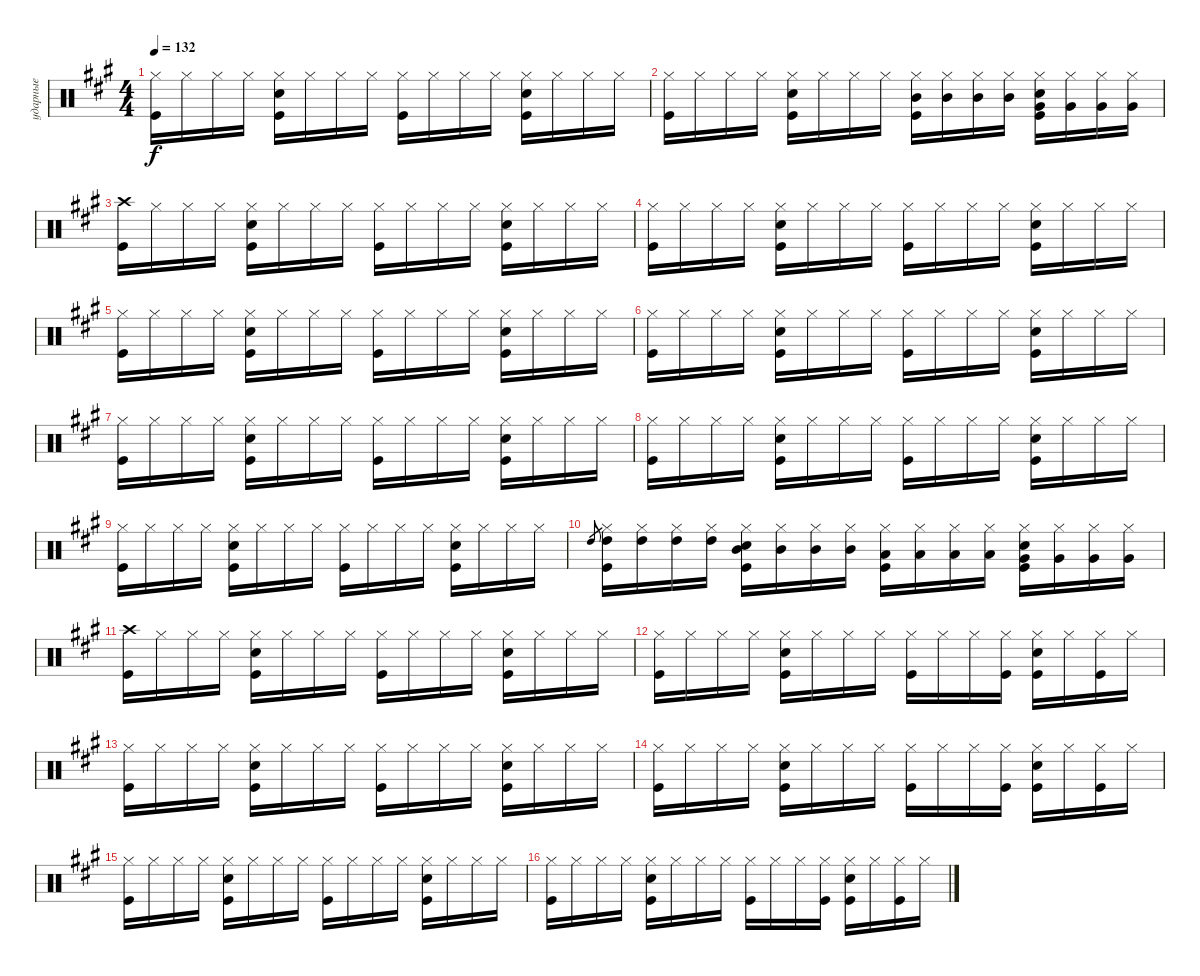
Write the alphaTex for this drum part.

\track ("ударные" "ударные") {instrument percussion}
\staff {score}
\articulation defaults
\ts (4 4)
\tempo 132
\clef neutral
\ks f#minor
("Hi-Hat (closed)" "Kick (hit)").16{dy f} "Hi-Hat (closed)".16 "Hi-Hat (closed)".16 "Hi-Hat (closed)".16 ("Hi-Hat (closed)" "Snare (hit) 2" "Kick (hit)").16 "Hi-Hat (closed)".16 "Hi-Hat (closed)".16 "Hi-Hat (closed)".16 ("Hi-Hat (closed)" "Kick (hit)").16 "Hi-Hat (closed)".16 "Hi-Hat (closed)".16 "Hi-Hat (closed)".16 ("Hi-Hat (closed)" "Snare (hit) 2" "Kick (hit)").16 "Hi-Hat (closed)".16 "Hi-Hat (closed)".16 "Hi-Hat (closed)".16 |
("Hi-Hat (closed)" "Kick (hit)").16 "Hi-Hat (closed)".16 "Hi-Hat (closed)".16 "Hi-Hat (closed)".16 ("Hi-Hat (closed)" "Snare (hit) 2" "Kick (hit)").16 "Hi-Hat (closed)".16 "Hi-Hat (closed)".16 "Hi-Hat (closed)".16 ("Mid Tom (hit)" "Hi-Hat (closed)" "Kick (hit)").16 ("Mid Tom (hit)" "Hi-Hat (closed)").16 ("Mid Tom (hit)" "Hi-Hat (closed)").16 ("Mid Tom (hit)" "Hi-Hat (closed)").16 ("Very Low Tom (hit)" "Hi-Hat (closed)" "Snare (hit) 2" "Kick (hit)").16 ("Very Low Tom (hit)" "Hi-Hat (closed)").16 ("Very Low Tom (hit)" "Hi-Hat (closed)").16 ("Very Low Tom (hit)" "Hi-Hat (closed)").16 |
("Kick (hit)" "Crash high (hit)").16 "Hi-Hat (closed)".16 "Hi-Hat (closed)".16 "Hi-Hat (closed)".16 ("Hi-Hat (closed)" "Snare (hit) 2" "Kick (hit)").16 "Hi-Hat (closed)".16 "Hi-Hat (closed)".16 "Hi-Hat (closed)".16 ("Hi-Hat (closed)" "Kick (hit)").16 "Hi-Hat (closed)".16 "Hi-Hat (closed)".16 "Hi-Hat (closed)".16 ("Hi-Hat (closed)" "Snare (hit) 2" "Kick (hit)").16 "Hi-Hat (closed)".16 "Hi-Hat (closed)".16 "Hi-Hat (closed)".16 |
("Hi-Hat (closed)" "Kick (hit)").16 "Hi-Hat (closed)".16 "Hi-Hat (closed)".16 "Hi-Hat (closed)".16 ("Hi-Hat (closed)" "Snare (hit) 2" "Kick (hit)").16 "Hi-Hat (closed)".16 "Hi-Hat (closed)".16 "Hi-Hat (closed)".16 ("Hi-Hat (closed)" "Kick (hit)").16 "Hi-Hat (closed)".16 "Hi-Hat (closed)".16 "Hi-Hat (closed)".16 ("Hi-Hat (closed)" "Snare (hit) 2" "Kick (hit)").16 "Hi-Hat (closed)".16 "Hi-Hat (closed)".16 "Hi-Hat (closed)".16 |
("Hi-Hat (closed)" "Kick (hit)").16 "Hi-Hat (closed)".16 "Hi-Hat (closed)".16 "Hi-Hat (closed)".16 ("Hi-Hat (closed)" "Snare (hit) 2" "Kick (hit)").16 "Hi-Hat (closed)".16 "Hi-Hat (closed)".16 "Hi-Hat (closed)".16 ("Hi-Hat (closed)" "Kick (hit)").16 "Hi-Hat (closed)".16 "Hi-Hat (closed)".16 "Hi-Hat (closed)".16 ("Hi-Hat (closed)" "Snare (hit) 2" "Kick (hit)").16 "Hi-Hat (closed)".16 "Hi-Hat (closed)".16 "Hi-Hat (closed)".16 |
("Hi-Hat (closed)" "Kick (hit)").16 "Hi-Hat (closed)".16 "Hi-Hat (closed)".16 "Hi-Hat (closed)".16 ("Hi-Hat (closed)" "Snare (hit) 2" "Kick (hit)").16 "Hi-Hat (closed)".16 "Hi-Hat (closed)".16 "Hi-Hat (closed)".16 ("Hi-Hat (closed)" "Kick (hit)").16 "Hi-Hat (closed)".16 "Hi-Hat (closed)".16 "Hi-Hat (closed)".16 ("Hi-Hat (closed)" "Snare (hit) 2" "Kick (hit)").16 "Hi-Hat (closed)".16 "Hi-Hat (closed)".16 "Hi-Hat (closed)".16 |
("Hi-Hat (closed)" "Kick (hit)").16 "Hi-Hat (closed)".16 "Hi-Hat (closed)".16 "Hi-Hat (closed)".16 ("Hi-Hat (closed)" "Snare (hit) 2" "Kick (hit)").16 "Hi-Hat (closed)".16 "Hi-Hat (closed)".16 "Hi-Hat (closed)".16 ("Hi-Hat (closed)" "Kick (hit)").16 "Hi-Hat (closed)".16 "Hi-Hat (closed)".16 "Hi-Hat (closed)".16 ("Hi-Hat (closed)" "Snare (hit) 2" "Kick (hit)").16 "Hi-Hat (closed)".16 "Hi-Hat (closed)".16 "Hi-Hat (closed)".16 |
("Hi-Hat (closed)" "Kick (hit)").16 "Hi-Hat (closed)".16 "Hi-Hat (closed)".16 "Hi-Hat (closed)".16 ("Hi-Hat (closed)" "Snare (hit) 2" "Kick (hit)").16 "Hi-Hat (closed)".16 "Hi-Hat (closed)".16 "Hi-Hat (closed)".16 ("Hi-Hat (closed)" "Kick (hit)").16 "Hi-Hat (closed)".16 "Hi-Hat (closed)".16 "Hi-Hat (closed)".16 ("Hi-Hat (closed)" "Snare (hit) 2" "Kick (hit)").16 "Hi-Hat (closed)".16 "Hi-Hat (closed)".16 "Hi-Hat (closed)".16 |
("Hi-Hat (closed)" "Kick (hit)").16 "Hi-Hat (closed)".16 "Hi-Hat (closed)".16 "Hi-Hat (closed)".16 ("Hi-Hat (closed)" "Snare (hit) 2" "Kick (hit)").16 "Hi-Hat (closed)".16 "Hi-Hat (closed)".16 "Hi-Hat (closed)".16 ("Hi-Hat (closed)" "Kick (hit)").16 "Hi-Hat (closed)".16 "Hi-Hat (closed)".16 "Hi-Hat (closed)".16 ("Hi-Hat (closed)" "Snare (hit) 2" "Kick (hit)").16 "Hi-Hat (closed)".16 "Hi-Hat (closed)".16 "Hi-Hat (closed)".16 |
"High Tom (hit)".8{gr} ("Hi-Hat (closed)" "Kick (hit)" "High Tom (hit)").16 ("Hi-Hat (closed)" "High Tom (hit)").16 ("Hi-Hat (closed)" "High Tom (hit)").16 ("Hi-Hat (closed)" "High Tom (hit)").16 ("Hi-Hat (closed)" "Snare (hit) 2" "Kick (hit)" "Mid Tom (hit)").16 ("Hi-Hat (closed)" "Mid Tom (hit)").16 ("Hi-Hat (closed)" "Mid Tom (hit)").16 ("Hi-Hat (closed)" "Mid Tom (hit)").16 ("Hi-Hat (closed)" "Kick (hit)" "Low Tom (hit)").16 ("Hi-Hat (closed)" "Low Tom (hit)").16 ("Hi-Hat (closed)" "Low Tom (hit)").16 ("Hi-Hat (closed)" "Low Tom (hit)").16 ("Hi-Hat (closed)" "Snare (hit) 2" "Kick (hit)" "Very Low Tom (hit)").16 ("Hi-Hat (closed)" "Very Low Tom (hit)").16 ("Hi-Hat (closed)" "Very Low Tom (hit)").16 ("Hi-Hat (closed)" "Very Low Tom (hit)").16 |
("Kick (hit)" "Crash high (hit)").16 "Hi-Hat (closed)".16 "Hi-Hat (closed)".16 "Hi-Hat (closed)".16 ("Hi-Hat (closed)" "Snare (hit) 2" "Kick (hit)").16 "Hi-Hat (closed)".16 "Hi-Hat (closed)".16 "Hi-Hat (closed)".16 ("Hi-Hat (closed)" "Kick (hit)").16 "Hi-Hat (closed)".16 "Hi-Hat (closed)".16 "Hi-Hat (closed)".16 ("Hi-Hat (closed)" "Snare (hit) 2" "Kick (hit)").16 "Hi-Hat (closed)".16 "Hi-Hat (closed)".16 "Hi-Hat (closed)".16 |
("Hi-Hat (closed)" "Kick (hit)").16 "Hi-Hat (closed)".16 "Hi-Hat (closed)".16 "Hi-Hat (closed)".16 ("Hi-Hat (closed)" "Snare (hit) 2" "Kick (hit)").16 "Hi-Hat (closed)".16 "Hi-Hat (closed)".16 "Hi-Hat (closed)".16 ("Hi-Hat (closed)" "Kick (hit)").16 "Hi-Hat (closed)".16 "Hi-Hat (closed)".16 ("Hi-Hat (closed)" "Kick (hit)").16 ("Hi-Hat (closed)" "Snare (hit) 2" "Kick (hit)").16 "Hi-Hat (closed)".16 ("Hi-Hat (closed)" "Kick (hit)").16 "Hi-Hat (closed)".16 |
("Hi-Hat (closed)" "Kick (hit)").16 "Hi-Hat (closed)".16 "Hi-Hat (closed)".16 "Hi-Hat (closed)".16 ("Hi-Hat (closed)" "Snare (hit) 2" "Kick (hit)").16 "Hi-Hat (closed)".16 "Hi-Hat (closed)".16 "Hi-Hat (closed)".16 ("Hi-Hat (closed)" "Kick (hit)").16 "Hi-Hat (closed)".16 "Hi-Hat (closed)".16 "Hi-Hat (closed)".16 ("Hi-Hat (closed)" "Snare (hit) 2" "Kick (hit)").16 "Hi-Hat (closed)".16 "Hi-Hat (closed)".16 "Hi-Hat (closed)".16 |
("Hi-Hat (closed)" "Kick (hit)").16 "Hi-Hat (closed)".16 "Hi-Hat (closed)".16 "Hi-Hat (closed)".16 ("Hi-Hat (closed)" "Snare (hit) 2" "Kick (hit)").16 "Hi-Hat (closed)".16 "Hi-Hat (closed)".16 "Hi-Hat (closed)".16 ("Hi-Hat (closed)" "Kick (hit)").16 "Hi-Hat (closed)".16 "Hi-Hat (closed)".16 ("Hi-Hat (closed)" "Kick (hit)").16 ("Hi-Hat (closed)" "Snare (hit) 2" "Kick (hit)").16 "Hi-Hat (closed)".16 ("Hi-Hat (closed)" "Kick (hit)").16 "Hi-Hat (closed)".16 |
("Hi-Hat (closed)" "Kick (hit)").16 "Hi-Hat (closed)".16 "Hi-Hat (closed)".16 "Hi-Hat (closed)".16 ("Hi-Hat (closed)" "Snare (hit) 2" "Kick (hit)").16 "Hi-Hat (closed)".16 "Hi-Hat (closed)".16 "Hi-Hat (closed)".16 ("Hi-Hat (closed)" "Kick (hit)").16 "Hi-Hat (closed)".16 "Hi-Hat (closed)".16 "Hi-Hat (closed)".16 ("Hi-Hat (closed)" "Snare (hit) 2" "Kick (hit)").16 "Hi-Hat (closed)".16 "Hi-Hat (closed)".16 "Hi-Hat (closed)".16 |
("Hi-Hat (closed)" "Kick (hit)").16 "Hi-Hat (closed)".16 "Hi-Hat (closed)".16 "Hi-Hat (closed)".16 ("Hi-Hat (closed)" "Snare (hit) 2" "Kick (hit)").16 "Hi-Hat (closed)".16 "Hi-Hat (closed)".16 "Hi-Hat (closed)".16 ("Hi-Hat (closed)" "Kick (hit)").16 "Hi-Hat (closed)".16 "Hi-Hat (closed)".16 ("Hi-Hat (closed)" "Kick (hit)").16 ("Hi-Hat (closed)" "Snare (hit) 2" "Kick (hit)").16 "Hi-Hat (closed)".16 ("Hi-Hat (closed)" "Kick (hit)").16 "Hi-Hat (closed)".16
